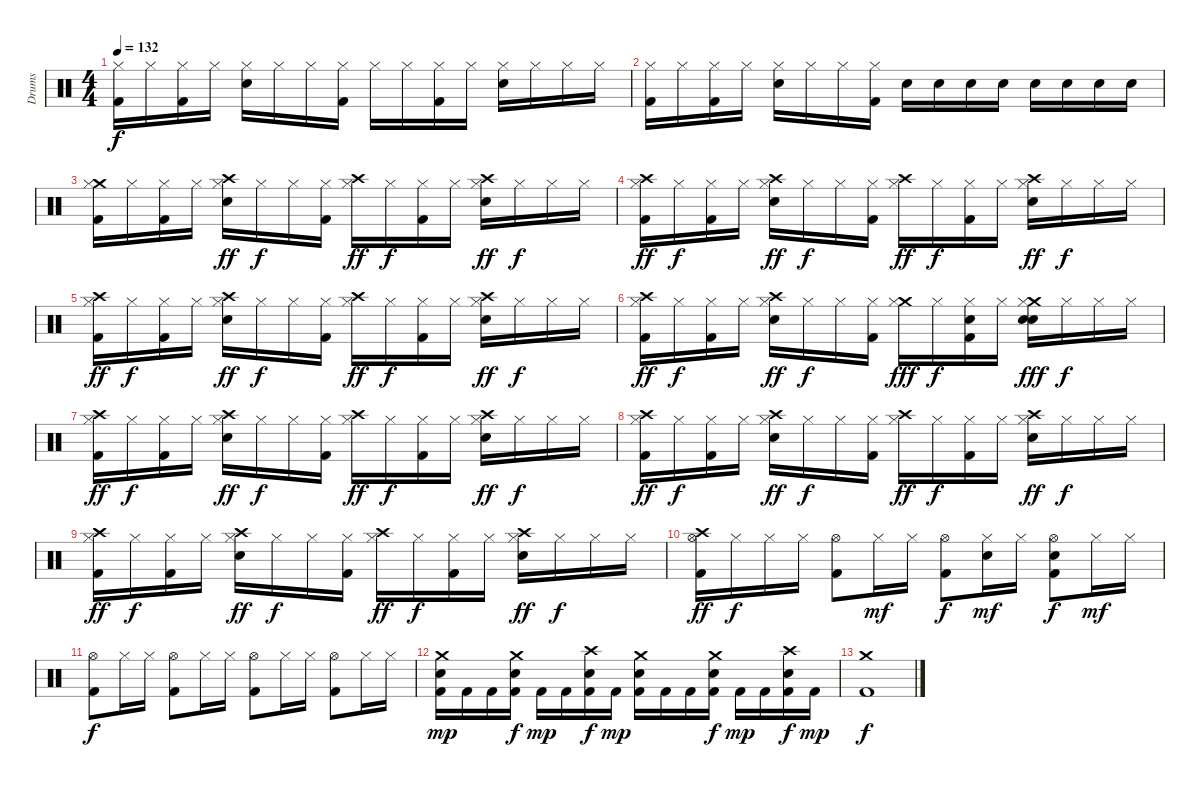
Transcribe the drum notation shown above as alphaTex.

\track ("Drums" "Drums") {instrument percussion}
\staff {score}
\articulation defaults
\ts (4 4)
\tempo 132
\clef neutral
\ks c
("Kick (hit) 2" "Hi-Hat (closed)").16{dy f} "Hi-Hat (closed)".16 ("Kick (hit) 2" "Hi-Hat (closed)").16 "Hi-Hat (closed)".16 ("Hi-Hat (closed)" "Snare (hit) 2").16 "Hi-Hat (closed)".16 "Hi-Hat (closed)".16 ("Kick (hit) 2" "Hi-Hat (closed)").16 "Hi-Hat (closed)".16 "Hi-Hat (closed)".16 ("Kick (hit) 2" "Hi-Hat (closed)").16 "Hi-Hat (closed)".16 ("Hi-Hat (closed)" "Snare (hit) 2").16 "Hi-Hat (closed)".16 "Hi-Hat (closed)".16 "Hi-Hat (closed)".16 |
("Kick (hit) 2" "Hi-Hat (closed)").16 "Hi-Hat (closed)".16 ("Kick (hit) 2" "Hi-Hat (closed)").16 "Hi-Hat (closed)".16 ("Hi-Hat (closed)" "Snare (hit) 2").16 "Hi-Hat (closed)".16 "Hi-Hat (closed)".16 ("Kick (hit) 2" "Hi-Hat (closed)").16 "Snare (hit) 2".16 "Snare (hit) 2".16 "Snare (hit) 2".16 "Snare (hit) 2".16 "Snare (hit) 2".16 "Snare (hit) 2".16 "Snare (hit) 2".16 "Snare (hit) 2".16 |
("Kick (hit) 2" "Crash medium (hit)" "Hi-Hat (closed)").16 "Hi-Hat (closed)".16 ("Kick (hit) 2" "Hi-Hat (closed)").16 "Hi-Hat (closed)".16 ("Crash high (hit)" "Hi-Hat (closed)" "Snare (hit) 2").16{dy ff} "Hi-Hat (closed)".16{dy f} "Hi-Hat (closed)".16 ("Kick (hit) 2" "Hi-Hat (closed)").16 ("Crash high (hit)" "Hi-Hat (closed)").16{dy ff} "Hi-Hat (closed)".16{dy f} ("Kick (hit) 2" "Hi-Hat (closed)").16 "Hi-Hat (closed)".16 ("Crash high (hit)" "Hi-Hat (closed)" "Snare (hit) 2").16{dy ff} "Hi-Hat (closed)".16{dy f} "Hi-Hat (closed)".16 "Hi-Hat (closed)".16 |
("Kick (hit) 2" "Crash high (hit)" "Hi-Hat (closed)").16{dy ff} "Hi-Hat (closed)".16{dy f} ("Kick (hit) 2" "Hi-Hat (closed)").16 "Hi-Hat (closed)".16 ("Crash high (hit)" "Hi-Hat (closed)" "Snare (hit) 2").16{dy ff} "Hi-Hat (closed)".16{dy f} "Hi-Hat (closed)".16 ("Kick (hit) 2" "Hi-Hat (closed)").16 ("Crash high (hit)" "Hi-Hat (closed)").16{dy ff} "Hi-Hat (closed)".16{dy f} ("Kick (hit) 2" "Hi-Hat (closed)").16 "Hi-Hat (closed)".16 ("Crash high (hit)" "Hi-Hat (closed)" "Snare (hit) 2").16{dy ff} "Hi-Hat (closed)".16{dy f} "Hi-Hat (closed)".16 "Hi-Hat (closed)".16 |
("Kick (hit) 2" "Crash high (hit)" "Hi-Hat (closed)").16{dy ff} "Hi-Hat (closed)".16{dy f} ("Kick (hit) 2" "Hi-Hat (closed)").16 "Hi-Hat (closed)".16 ("Crash high (hit)" "Hi-Hat (closed)" "Snare (hit) 2").16{dy ff} "Hi-Hat (closed)".16{dy f} "Hi-Hat (closed)".16 ("Kick (hit) 2" "Hi-Hat (closed)").16 ("Crash high (hit)" "Hi-Hat (closed)").16{dy ff} "Hi-Hat (closed)".16{dy f} ("Kick (hit) 2" "Hi-Hat (closed)").16 "Hi-Hat (closed)".16 ("Crash high (hit)" "Hi-Hat (closed)" "Snare (hit) 2").16{dy ff} "Hi-Hat (closed)".16{dy f} "Hi-Hat (closed)".16 "Hi-Hat (closed)".16 |
("Kick (hit) 2" "Crash high (hit)" "Hi-Hat (closed)").16{dy ff} "Hi-Hat (closed)".16{dy f} ("Kick (hit) 2" "Hi-Hat (closed)").16 "Hi-Hat (closed)".16 ("Crash high (hit)" "Hi-Hat (closed)" "Snare (hit) 2").16{dy ff} "Hi-Hat (closed)".16{dy f} "Hi-Hat (closed)".16 ("Kick (hit) 2" "Hi-Hat (closed)").16 ("Crash medium (hit)" "Hi-Hat (closed)").16{dy fff} "Hi-Hat (closed)".16{dy f} ("Kick (hit) 2" "Hi-Hat (closed)" "Hand Clap (hit)").16 "Hi-Hat (closed)".16 ("Crash medium (hit)" "Hi-Hat (closed)" "Snare (hit) 2" "Hand Clap (hit)").16{dy fff} "Hi-Hat (closed)".16{dy f} "Hi-Hat (closed)".16 "Hi-Hat (closed)".16 |
("Kick (hit) 2" "Crash high (hit)" "Hi-Hat (closed)").16{dy ff} "Hi-Hat (closed)".16{dy f} ("Kick (hit) 2" "Hi-Hat (closed)").16 "Hi-Hat (closed)".16 ("Crash high (hit)" "Hi-Hat (closed)" "Snare (hit) 2").16{dy ff} "Hi-Hat (closed)".16{dy f} "Hi-Hat (closed)".16 ("Kick (hit) 2" "Hi-Hat (closed)").16 ("Crash high (hit)" "Hi-Hat (closed)").16{dy ff} "Hi-Hat (closed)".16{dy f} ("Kick (hit) 2" "Hi-Hat (closed)").16 "Hi-Hat (closed)".16 ("Crash high (hit)" "Hi-Hat (closed)" "Snare (hit) 2").16{dy ff} "Hi-Hat (closed)".16{dy f} "Hi-Hat (closed)".16 "Hi-Hat (closed)".16 |
("Kick (hit) 2" "Crash high (hit)" "Hi-Hat (closed)").16{dy ff} "Hi-Hat (closed)".16{dy f} ("Kick (hit) 2" "Hi-Hat (closed)").16 "Hi-Hat (closed)".16 ("Crash high (hit)" "Hi-Hat (closed)" "Snare (hit) 2").16{dy ff} "Hi-Hat (closed)".16{dy f} "Hi-Hat (closed)".16 ("Kick (hit) 2" "Hi-Hat (closed)").16 ("Crash high (hit)" "Hi-Hat (closed)").16{dy ff} "Hi-Hat (closed)".16{dy f} ("Kick (hit) 2" "Hi-Hat (closed)").16 "Hi-Hat (closed)".16 ("Crash high (hit)" "Hi-Hat (closed)" "Snare (hit) 2").16{dy ff} "Hi-Hat (closed)".16{dy f} "Hi-Hat (closed)".16 "Hi-Hat (closed)".16 |
("Kick (hit) 2" "Crash high (hit)" "Hi-Hat (closed)").16{dy ff} "Hi-Hat (closed)".16{dy f} ("Kick (hit) 2" "Hi-Hat (closed)").16 "Hi-Hat (closed)".16 ("Crash high (hit)" "Hi-Hat (closed)" "Snare (hit) 2").16{dy ff} "Hi-Hat (closed)".16{dy f} "Hi-Hat (closed)".16 ("Kick (hit) 2" "Hi-Hat (closed)").16 ("Crash high (hit)" "Hi-Hat (closed)").16{dy ff} "Hi-Hat (closed)".16{dy f} ("Kick (hit) 2" "Hi-Hat (closed)").16 "Hi-Hat (closed)".16 ("Crash high (hit)" "Hi-Hat (closed)" "Snare (hit) 2").16{dy ff} "Hi-Hat (closed)".16{dy f} "Hi-Hat (closed)".16 "Hi-Hat (closed)".16 |
("Kick (hit) 2" "Crash high (hit)" "Hi-Hat (open)").16{dy ff} "Hi-Hat (closed)".16{dy f} "Hi-Hat (closed)".16 "Hi-Hat (closed)".16 ("Kick (hit) 2" "Hi-Hat (open)").8 "Hi-Hat (closed)".16{dy mf} "Hi-Hat (closed)".16 ("Kick (hit) 2" "Hi-Hat (open)").8{dy f} ("Hi-Hat (closed)" "Hand Clap (hit)").16{dy mf} "Hi-Hat (closed)".16 ("Kick (hit) 2" "Hi-Hat (open)" "Hand Clap (hit)").8{dy f} "Hi-Hat (closed)".16{dy mf} "Hi-Hat (closed)".16 |
("Kick (hit) 2" "Hi-Hat (open)").8{dy f} "Hi-Hat (closed)".16 "Hi-Hat (closed)".16 ("Kick (hit) 2" "Hi-Hat (open)").8 "Hi-Hat (closed)".16 "Hi-Hat (closed)".16 ("Kick (hit) 2" "Hi-Hat (open)").8 "Hi-Hat (closed)".16 "Hi-Hat (closed)".16 ("Kick (hit) 2" "Hi-Hat (open)").8 "Hi-Hat (closed)".16 "Hi-Hat (closed)".16 |
("Kick (hit) 2" "Crash medium (hit)" "Snare (hit) 2").16{dy mp} "Kick (hit) 2".16 "Kick (hit) 2".16 ("Kick (hit) 2" "Crash medium (hit)" "Snare (hit) 2").16{dy f} "Kick (hit) 2".16{dy mp} "Kick (hit) 2".16 ("Kick (hit) 2" "Crash high (hit)" "Snare (hit) 2").16{dy f} "Kick (hit) 2".16{dy mp} ("Kick (hit) 2" "Crash medium (hit)" "Snare (hit) 2").16 "Kick (hit) 2".16 "Kick (hit) 2".16 ("Kick (hit) 2" "Crash medium (hit)" "Snare (hit) 2").16{dy f} "Kick (hit) 2".16{dy mp} "Kick (hit) 2".16 ("Kick (hit) 2" "Crash high (hit)" "Snare (hit) 2").16{dy f} "Kick (hit) 2".16{dy mp} |
("Kick (hit) 2" "Crash medium (hit)").1{dy f}
